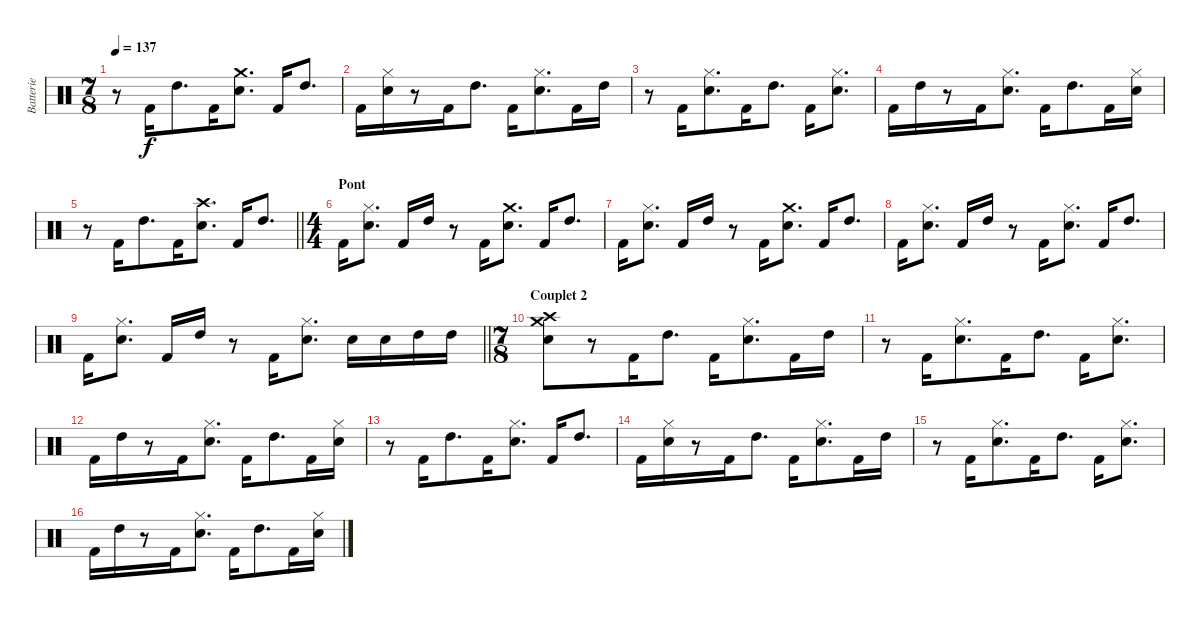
\track ("Batterie" "Batterie") {instrument percussion}
\staff {score}
\articulation defaults
\ts (7 8)
\tempo 137
\clef neutral
\ks c
r.8{dy f} "Kick (hit) 2".16 "High Tom (hit)".8{d} "Kick (hit) 2".16 ("Snare (hit) 2" "Crash medium (hit)").8{d} "Kick (hit) 2".16 "High Tom (hit)".8{d} |
"Kick (hit) 2".16 ("Snare (hit) 2" "Hi-Hat (closed)").16 r.8 "Kick (hit) 2".16 "High Tom (hit)".8{d} "Kick (hit) 2".16 ("Snare (hit) 2" "Hi-Hat (closed)").8{d} "Kick (hit) 2".16 "High Tom (hit)".16 |
r.8 "Kick (hit) 2".16 ("Snare (hit) 2" "Hi-Hat (closed)").8{d} "Kick (hit) 2".16 "High Tom (hit)".8{d} "Kick (hit) 2".16 ("Snare (hit) 2" "Hi-Hat (closed)").8{d} |
"Kick (hit) 2".16 "High Tom (hit)".16 r.8 "Kick (hit) 2".16 ("Snare (hit) 2" "Hi-Hat (closed)").8{d} "Kick (hit) 2".16 "High Tom (hit)".8{d} "Kick (hit) 2".16 ("Snare (hit) 2" "Hi-Hat (closed)").16 |
\barLineRight lightlight
r.8 "Kick (hit) 2".16 "High Tom (hit)".8{d} "Kick (hit) 2".16 ("Snare (hit) 2" "Crash high (hit)").8{d} "Kick (hit) 2".16 "High Tom (hit)".8{d} |
\ts (4 4)
\section ("" "Pont")
"Kick (hit) 2".16 ("Snare (hit) 2" "Hi-Hat (closed)").8{d} "Kick (hit) 2".16 "High Tom (hit)".16 r.8 "Kick (hit) 2".16 ("Snare (hit) 2" "Crash medium (hit)").8{d} "Kick (hit) 2".16 "High Tom (hit)".8{d} |
"Kick (hit) 2".16 ("Snare (hit) 2" "Hi-Hat (closed)").8{d} "Kick (hit) 2".16 "High Tom (hit)".16 r.8 "Kick (hit) 2".16 ("Snare (hit) 2" "Crash medium (hit)").8{d} "Kick (hit) 2".16 "High Tom (hit)".8{d} |
"Kick (hit) 2".16 ("Snare (hit) 2" "Hi-Hat (closed)").8{d} "Kick (hit) 2".16 "High Tom (hit)".16 r.8 "Kick (hit) 2".16 ("Snare (hit) 2" "Hi-Hat (closed)").8{d} "Kick (hit) 2".16 "High Tom (hit)".8{d} |
\barLineRight lightlight "Kick (hit) 2".16
("Snare (hit) 2" "Hi-Hat (closed)").8{d} "Kick (hit) 2".16 "High Tom (hit)".16 r.8 "Kick (hit) 2".16 ("Snare (hit) 2" "Hi-Hat (closed)").8{d} "Snare (hit) 2".16 "Snare (hit) 2".16 "High Tom (hit)".16 "High Tom (hit)".16 |
\ts (7 8)
\section ("" "Couplet 2")
("Snare (hit) 2" "Crash high (hit)" "Crash medium (hit)").8 r.8 "Kick (hit) 2".16 "High Tom (hit)".8{d} "Kick (hit) 2".16 ("Snare (hit) 2" "Hi-Hat (closed)").8{d} "Kick (hit) 2".16 "High Tom (hit)".16 |
r.8 "Kick (hit) 2".16 ("Snare (hit) 2" "Hi-Hat (closed)").8{d} "Kick (hit) 2".16 "High Tom (hit)".8{d} "Kick (hit) 2".16 ("Snare (hit) 2" "Hi-Hat (closed)").8{d} |
"Kick (hit) 2".16 "High Tom (hit)".16 r.8 "Kick (hit) 2".16 ("Snare (hit) 2" "Hi-Hat (closed)").8{d} "Kick (hit) 2".16 "High Tom (hit)".8{d} "Kick (hit) 2".16 ("Snare (hit) 2" "Hi-Hat (closed)").16 |
r.8 "Kick (hit) 2".16 "High Tom (hit)".8{d} "Kick (hit) 2".16 ("Snare (hit) 2" "Hi-Hat (closed)").8{d} "Kick (hit) 2".16 "High Tom (hit)".8{d} |
"Kick (hit) 2".16 ("Snare (hit) 2" "Hi-Hat (closed)").16 r.8 "Kick (hit) 2".16 "High Tom (hit)".8{d} "Kick (hit) 2".16 ("Snare (hit) 2" "Hi-Hat (closed)").8{d} "Kick (hit) 2".16 "High Tom (hit)".16 |
r.8 "Kick (hit) 2".16 ("Snare (hit) 2" "Hi-Hat (closed)").8{d} "Kick (hit) 2".16 "High Tom (hit)".8{d} "Kick (hit) 2".16 ("Snare (hit) 2" "Hi-Hat (closed)").8{d} |
"Kick (hit) 2".16 "High Tom (hit)".16 r.8 "Kick (hit) 2".16 ("Snare (hit) 2" "Hi-Hat (closed)").8{d} "Kick (hit) 2".16 "High Tom (hit)".8{d} "Kick (hit) 2".16 ("Snare (hit) 2" "Hi-Hat (closed)").16
